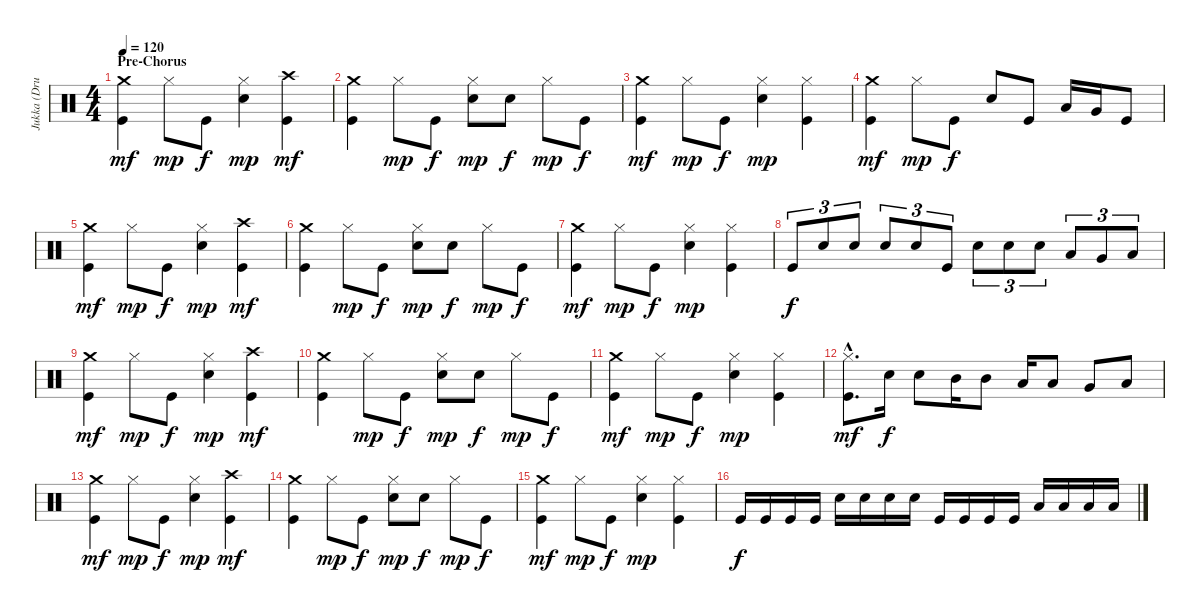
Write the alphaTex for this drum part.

\track ("Jukka (Drums)" "Jukka (Dru") {instrument percussion}
\staff {score}
\articulation defaults
\ts (4 4)
\section ("" "Pre-Chorus")
\tempo 120
\clef neutral
\ks c
("Crash medium (hit)" "Kick (hit)").4{dy mf} "Hi-Hat (closed)".8{dy mp} "Kick (hit)".8{dy f} ("Hi-Hat (closed)" "Electric Snare (hit)").4{dy mp} ("Crash high (hit)" "Kick (hit)").4{dy mf} |
("Crash medium (hit)" "Kick (hit)").4 "Hi-Hat (closed)".8{dy mp} "Kick (hit)".8{dy f} ("Hi-Hat (closed)" "Electric Snare (hit)").8{dy mp} "Electric Snare (hit)".8{dy f} "Hi-Hat (closed)".8{dy mp} "Kick (hit)".8{dy f} |
("Crash medium (hit)" "Kick (hit)").4{dy mf} "Hi-Hat (closed)".8{dy mp} "Kick (hit)".8{dy f} ("Hi-Hat (closed)" "Electric Snare (hit)").4{dy mp} ("Hi-Hat (closed)" "Kick (hit)").4 |
("Crash medium (hit)" "Kick (hit)").4{dy mf} "Hi-Hat (closed)".8{dy mp} "Kick (hit)".8{dy f} "Electric Snare (hit)".8 "Kick (hit)".8 "Low Tom (hit)".16 "Very Low Tom (hit)".16 "Kick (hit)".8 |
("Crash medium (hit)" "Kick (hit)").4{dy mf} "Hi-Hat (closed)".8{dy mp} "Kick (hit)".8{dy f} ("Hi-Hat (closed)" "Electric Snare (hit)").4{dy mp} ("Crash high (hit)" "Kick (hit)").4{dy mf} |
("Crash medium (hit)" "Kick (hit)").4 "Hi-Hat (closed)".8{dy mp} "Kick (hit)".8{dy f} ("Hi-Hat (closed)" "Electric Snare (hit)").8{dy mp} "Electric Snare (hit)".8{dy f} "Hi-Hat (closed)".8{dy mp} "Kick (hit)".8{dy f} |
("Crash medium (hit)" "Kick (hit)").4{dy mf} "Hi-Hat (closed)".8{dy mp} "Kick (hit)".8{dy f} ("Hi-Hat (closed)" "Electric Snare (hit)").4{dy mp} ("Hi-Hat (closed)" "Kick (hit)").4 |
"Kick (hit)".8{tu (3 2) dy f} "Electric Snare (hit)".8{tu (3 2)} "Electric Snare (hit)".8{tu (3 2)} "Electric Snare (hit)".8{tu (3 2)} "Electric Snare (hit)".8{tu (3 2)} "Kick (hit)".8{tu (3 2)} "Electric Snare (hit)".8{tu (3 2)} "Electric Snare (hit)".8{tu (3 2)} "Electric Snare (hit)".8{tu (3 2)} "Low Tom (hit)".8{tu (3 2)} "Very Low Tom (hit)".8{tu (3 2)} "Low Floor Tom (hit)".8{tu (3 2)} |
("Crash medium (hit)" "Kick (hit)").4{dy mf} "Hi-Hat (closed)".8{dy mp} "Kick (hit)".8{dy f} ("Hi-Hat (closed)" "Electric Snare (hit)").4{dy mp} ("Crash high (hit)" "Kick (hit)").4{dy mf} |
("Crash medium (hit)" "Kick (hit)").4 "Hi-Hat (closed)".8{dy mp} "Kick (hit)".8{dy f} ("Hi-Hat (closed)" "Electric Snare (hit)").8{dy mp} "Electric Snare (hit)".8{dy f} "Hi-Hat (closed)".8{dy mp} "Kick (hit)".8{dy f} |
("Crash medium (hit)" "Kick (hit)").4{dy mf} "Hi-Hat (closed)".8{dy mp} "Kick (hit)".8{dy f} ("Hi-Hat (closed)" "Electric Snare (hit)").4{dy mp} ("Hi-Hat (closed)" "Kick (hit)").4 |
("Hi-Hat (closed)"{hac} "Kick (hit)"{hac}).8{d dy mf} "Electric Snare (hit)".16{dy f} "Electric Snare (hit)".8 "Mid Tom (hit)".16 "Mid Tom (hit)".8 "Low Tom (hit)".16 "Low Tom (hit)".8 "Very Low Tom (hit)".8 "Low Floor Tom (hit)".8 |
("Crash medium (hit)" "Kick (hit)").4{dy mf} "Hi-Hat (closed)".8{dy mp} "Kick (hit)".8{dy f} ("Hi-Hat (closed)" "Electric Snare (hit)").4{dy mp} ("Crash high (hit)" "Kick (hit)").4{dy mf} |
("Crash medium (hit)" "Kick (hit)").4 "Hi-Hat (closed)".8{dy mp} "Kick (hit)".8{dy f} ("Hi-Hat (closed)" "Electric Snare (hit)").8{dy mp} "Electric Snare (hit)".8{dy f} "Hi-Hat (closed)".8{dy mp} "Kick (hit)".8{dy f} |
("Crash medium (hit)" "Kick (hit)").4{dy mf} "Hi-Hat (closed)".8{dy mp} "Kick (hit)".8{dy f} ("Hi-Hat (closed)" "Electric Snare (hit)").4{dy mp} ("Hi-Hat (closed)" "Kick (hit)").4 |
"Kick (hit)".16{dy f} "Kick (hit)".16 "Kick (hit)".16 "Kick (hit)".16 "Electric Snare (hit)".16 "Electric Snare (hit)".16 "Electric Snare (hit)".16 "Electric Snare (hit)".16 "Kick (hit)".16 "Kick (hit)".16 "Kick (hit)".16 "Kick (hit)".16 "Low Floor Tom (hit)".16 "Low Floor Tom (hit)".16 "Low Floor Tom (hit)".16 "Low Floor Tom (hit)".16
